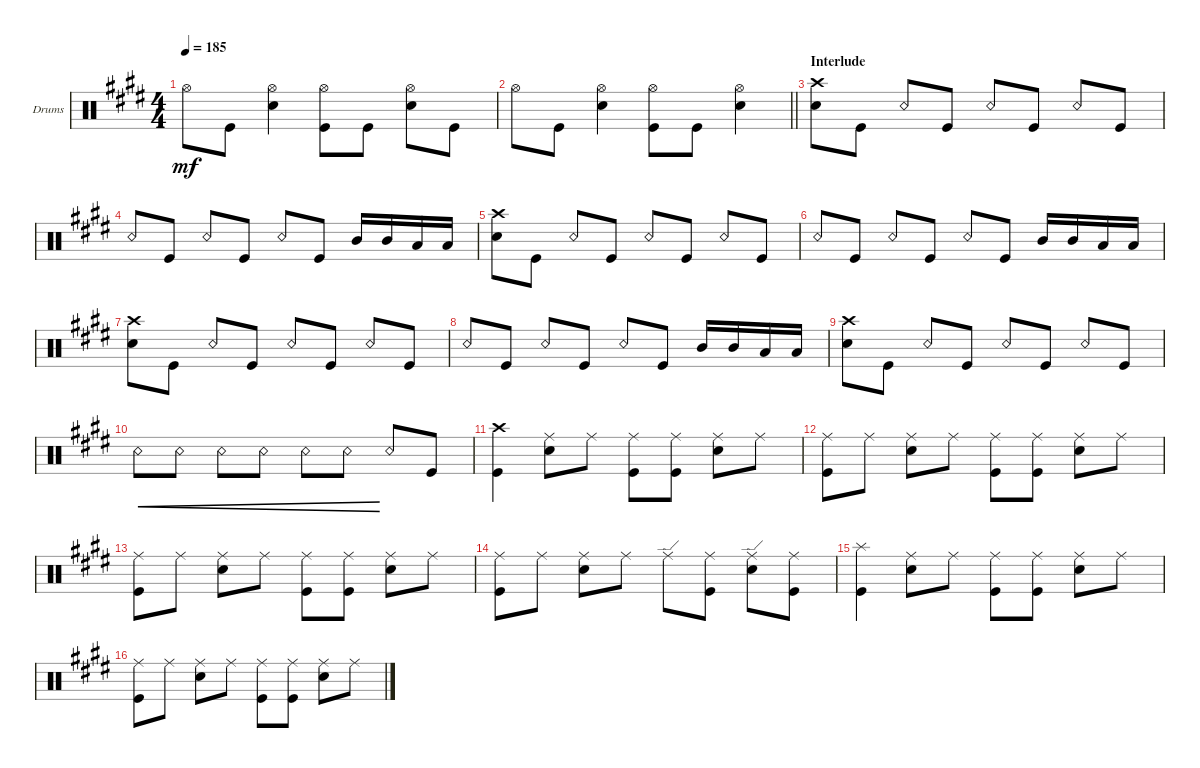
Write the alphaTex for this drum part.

\defaultSystemsLayout 4
\bracketExtendMode groupsimilarinstruments
\firstSystemTrackNameOrientation horizontal
\otherSystemsTrackNameOrientation horizontal
\track ("Drums" "Drums") {instrument percussion}
\staff {score}
\articulation defaults
\ts (4 4)
\tempo 185
\clef neutral
\ks e "Hi-Hat (open)".8{dy mf} "Kick (hit)".8
("Snare (hit) 2" "Hi-Hat (open)").4 ("Kick (hit)" "Hi-Hat (open)").8 "Kick (hit)".8 ("Snare (hit) 2" "Hi-Hat (open)").8 "Kick (hit)".8 |
\barLineRight lightlight "Hi-Hat (open)".8 "Kick (hit)".8
("Snare (hit) 2" "Hi-Hat (open)").4 ("Kick (hit)" "Hi-Hat (open)").8 "Kick (hit)".8 ("Snare (hit) 2" "Hi-Hat (open)").4 |
\section ("" "Interlude")
("Snare (hit) 2" "Crash high (hit)").8 "Kick (hit)".8 "Snare (rim shot)".8 "Kick (hit)".8 "Snare (rim shot)".8 "Kick (hit)".8 "Snare (rim shot)".8 "Kick (hit)".8 |
"Snare (rim shot)".8 "Kick (hit)".8 "Snare (rim shot)".8 "Kick (hit)".8 "Snare (rim shot)".8 "Kick (hit)".8 "Mid Tom (hit)".16 "Mid Tom (hit)".16 "Low Tom (hit)".16 "Low Tom (hit)".16 |
("Snare (hit) 2" "Crash high (hit)").8 "Kick (hit)".8 "Snare (rim shot)".8 "Kick (hit)".8 "Snare (rim shot)".8 "Kick (hit)".8 "Snare (rim shot)".8 "Kick (hit)".8 |
"Snare (rim shot)".8 "Kick (hit)".8 "Snare (rim shot)".8 "Kick (hit)".8 "Snare (rim shot)".8 "Kick (hit)".8 "Mid Tom (hit)".16 "Mid Tom (hit)".16 "Low Tom (hit)".16 "Low Tom (hit)".16 |
("Snare (hit) 2" "Crash high (hit)").8 "Kick (hit)".8 "Snare (rim shot)".8 "Kick (hit)".8 "Snare (rim shot)".8 "Kick (hit)".8 "Snare (rim shot)".8 "Kick (hit)".8 |
"Snare (rim shot)".8 "Kick (hit)".8 "Snare (rim shot)".8 "Kick (hit)".8 "Snare (rim shot)".8 "Kick (hit)".8 "Mid Tom (hit)".16 "Mid Tom (hit)".16 "Low Tom (hit)".16 "Low Tom (hit)".16 |
("Snare (hit) 2" "Crash high (hit)").8 "Kick (hit)".8 "Snare (rim shot)".8 "Kick (hit)".8 "Snare (rim shot)".8 "Kick (hit)".8 "Snare (rim shot)".8 "Kick (hit)".8 |
"Snare (rim shot)".8{cre} "Snare (rim shot)".8{cre} "Snare (rim shot)".8{cre} "Snare (rim shot)".8{cre} "Snare (rim shot)".8{cre} "Snare (rim shot)".8{cre} "Snare (rim shot)".8 "Kick (hit)".8 |
("Kick (hit)" "Crash high (hit)").4 ("Ride (middle)" "Snare (hit) 2").8 "Ride (middle)".8 ("Ride (middle)" "Kick (hit)").8 ("Ride (middle)" "Kick (hit)").8 ("Ride (middle)" "Snare (hit) 2").8 "Ride (middle)".8 |
("Ride (middle)" "Kick (hit)").8 "Ride (middle)".8 ("Ride (middle)" "Snare (hit) 2").8 "Ride (middle)".8 ("Ride (middle)" "Kick (hit)").8 ("Ride (middle)" "Kick (hit)").8 ("Ride (middle)" "Snare (hit) 2").8 "Ride (middle)".8 |
("Ride (middle)" "Kick (hit)").8 "Ride (middle)".8 ("Ride (middle)" "Snare (hit) 2").8 "Ride (middle)".8 ("Ride (middle)" "Kick (hit)").8 ("Ride (middle)" "Kick (hit)").8 ("Ride (middle)" "Snare (hit) 2").8 "Ride (middle)".8 |
("Ride (middle)" "Kick (hit)").8 "Ride (middle)".8 ("Ride (middle)" "Snare (hit) 2").8 "Ride (middle)".8 "Ride (edge)".8 ("Ride (middle)" "Kick (hit)").8 ("Ride (edge)" "Snare (hit) 2").8 ("Ride (middle)" "Kick (hit)").8 |
("Kick (hit)" "Splash (hit)").4 ("Ride (middle)" "Snare (hit) 2").8 "Ride (middle)".8 ("Ride (middle)" "Kick (hit)").8 ("Ride (middle)" "Kick (hit)").8 ("Ride (middle)" "Snare (hit) 2").8 "Ride (middle)".8 |
("Ride (middle)" "Kick (hit)").8 "Ride (middle)".8 ("Ride (middle)" "Snare (hit) 2").8 "Ride (middle)".8 ("Ride (middle)" "Kick (hit)").8 ("Ride (middle)" "Kick (hit)").8 ("Ride (middle)" "Snare (hit) 2").8 "Ride (middle)".8
